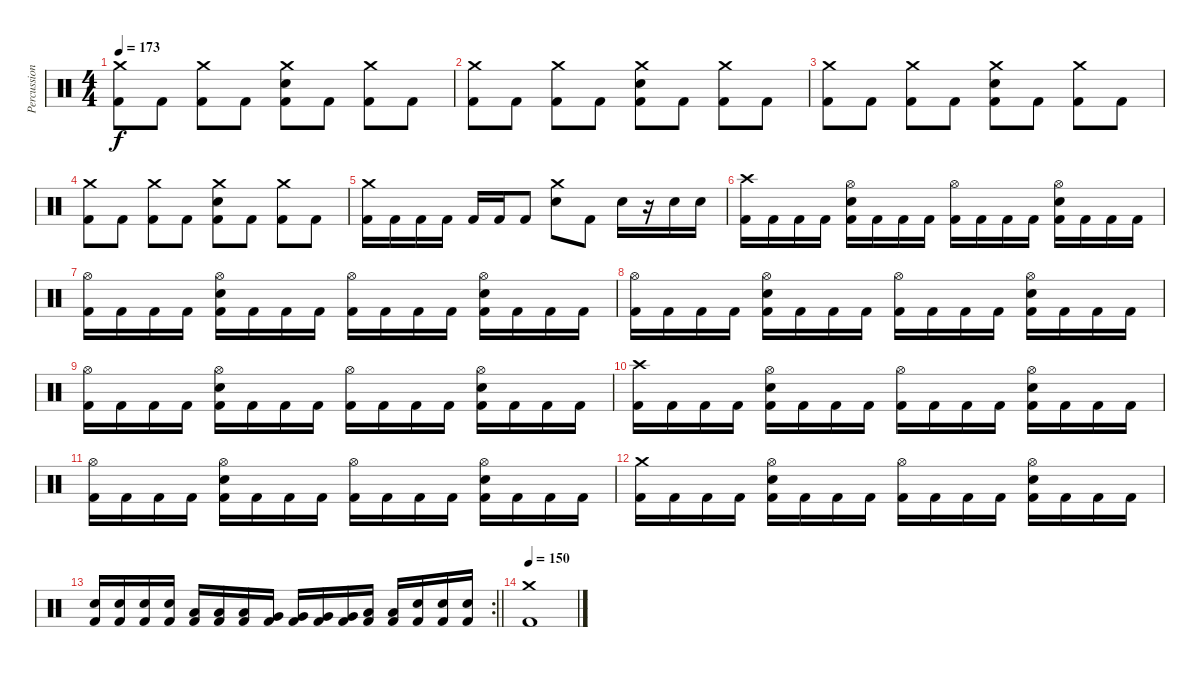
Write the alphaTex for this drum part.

\track ("Percussion" "Percussion") {instrument percussion}
\staff {score}
\articulation defaults
\ts (4 4)
\tempo 173
\clef neutral
\ks c
("Crash medium (hit)" "Kick (hit) 2").8{dy f} "Kick (hit) 2".8 ("Crash medium (hit)" "Kick (hit) 2").8 "Kick (hit) 2".8 ("Crash medium (hit)" "Electric Snare (hit)" "Kick (hit) 2").8 "Kick (hit) 2".8 ("Crash medium (hit)" "Kick (hit) 2").8 "Kick (hit) 2".8 |
("Crash medium (hit)" "Kick (hit) 2").8 "Kick (hit) 2".8 ("Crash medium (hit)" "Kick (hit) 2").8 "Kick (hit) 2".8 ("Crash medium (hit)" "Electric Snare (hit)" "Kick (hit) 2").8 "Kick (hit) 2".8 ("Crash medium (hit)" "Kick (hit) 2").8 "Kick (hit) 2".8 |
("Crash medium (hit)" "Kick (hit) 2").8 "Kick (hit) 2".8 ("Crash medium (hit)" "Kick (hit) 2").8 "Kick (hit) 2".8 ("Crash medium (hit)" "Electric Snare (hit)" "Kick (hit) 2").8 "Kick (hit) 2".8 ("Crash medium (hit)" "Kick (hit) 2").8 "Kick (hit) 2".8 |
("Crash medium (hit)" "Kick (hit) 2").8 "Kick (hit) 2".8 ("Crash medium (hit)" "Kick (hit) 2").8 "Kick (hit) 2".8 ("Crash medium (hit)" "Electric Snare (hit)" "Kick (hit) 2").8 "Kick (hit) 2".8 ("Crash medium (hit)" "Kick (hit) 2").8 "Kick (hit) 2".8 |
("Crash medium (hit)" "Kick (hit) 2").16 "Kick (hit) 2".16 "Kick (hit) 2".16 "Kick (hit) 2".16 "Kick (hit) 2".16 "Kick (hit) 2".16 "Kick (hit) 2".8 ("Crash medium (hit)" "Electric Snare (hit)").8 "Kick (hit) 2".8 "Electric Snare (hit)".16 r.16 "Electric Snare (hit)".16 "Electric Snare (hit)".16 |
("Crash high (hit)" "Kick (hit) 2").16 "Kick (hit) 2".16 "Kick (hit) 2".16 "Kick (hit) 2".16 ("Hi-Hat (open)" "Electric Snare (hit)" "Kick (hit) 2").16 "Kick (hit) 2".16 "Kick (hit) 2".16 "Kick (hit) 2".16 ("Hi-Hat (open)" "Kick (hit) 2").16 "Kick (hit) 2".16 "Kick (hit) 2".16 "Kick (hit) 2".16 ("Hi-Hat (open)" "Electric Snare (hit)" "Kick (hit) 2").16 "Kick (hit) 2".16 "Kick (hit) 2".16 "Kick (hit) 2".16 |
("Hi-Hat (open)" "Kick (hit) 2").16 "Kick (hit) 2".16 "Kick (hit) 2".16 "Kick (hit) 2".16 ("Hi-Hat (open)" "Electric Snare (hit)" "Kick (hit) 2").16 "Kick (hit) 2".16 "Kick (hit) 2".16 "Kick (hit) 2".16 ("Hi-Hat (open)" "Kick (hit) 2").16 "Kick (hit) 2".16 "Kick (hit) 2".16 "Kick (hit) 2".16 ("Hi-Hat (open)" "Electric Snare (hit)" "Kick (hit) 2").16 "Kick (hit) 2".16 "Kick (hit) 2".16 "Kick (hit) 2".16 |
("Hi-Hat (open)" "Kick (hit) 2").16 "Kick (hit) 2".16 "Kick (hit) 2".16 "Kick (hit) 2".16 ("Hi-Hat (open)" "Electric Snare (hit)" "Kick (hit) 2").16 "Kick (hit) 2".16 "Kick (hit) 2".16 "Kick (hit) 2".16 ("Hi-Hat (open)" "Kick (hit) 2").16 "Kick (hit) 2".16 "Kick (hit) 2".16 "Kick (hit) 2".16 ("Hi-Hat (open)" "Electric Snare (hit)" "Kick (hit) 2").16 "Kick (hit) 2".16 "Kick (hit) 2".16 "Kick (hit) 2".16 |
("Hi-Hat (open)" "Kick (hit) 2").16 "Kick (hit) 2".16 "Kick (hit) 2".16 "Kick (hit) 2".16 ("Hi-Hat (open)" "Electric Snare (hit)" "Kick (hit) 2").16 "Kick (hit) 2".16 "Kick (hit) 2".16 "Kick (hit) 2".16 ("Hi-Hat (open)" "Kick (hit) 2").16 "Kick (hit) 2".16 "Kick (hit) 2".16 "Kick (hit) 2".16 ("Hi-Hat (open)" "Electric Snare (hit)" "Kick (hit) 2").16 "Kick (hit) 2".16 "Kick (hit) 2".16 "Kick (hit) 2".16 |
("Crash high (hit)" "Kick (hit) 2").16 "Kick (hit) 2".16 "Kick (hit) 2".16 "Kick (hit) 2".16 ("Hi-Hat (open)" "Electric Snare (hit)" "Kick (hit) 2").16 "Kick (hit) 2".16 "Kick (hit) 2".16 "Kick (hit) 2".16 ("Hi-Hat (open)" "Kick (hit) 2").16 "Kick (hit) 2".16 "Kick (hit) 2".16 "Kick (hit) 2".16 ("Hi-Hat (open)" "Electric Snare (hit)" "Kick (hit) 2").16 "Kick (hit) 2".16 "Kick (hit) 2".16 "Kick (hit) 2".16 |
("Hi-Hat (open)" "Kick (hit) 2").16 "Kick (hit) 2".16 "Kick (hit) 2".16 "Kick (hit) 2".16 ("Hi-Hat (open)" "Electric Snare (hit)" "Kick (hit) 2").16 "Kick (hit) 2".16 "Kick (hit) 2".16 "Kick (hit) 2".16 ("Hi-Hat (open)" "Kick (hit) 2").16 "Kick (hit) 2".16 "Kick (hit) 2".16 "Kick (hit) 2".16 ("Hi-Hat (open)" "Electric Snare (hit)" "Kick (hit) 2").16 "Kick (hit) 2".16 "Kick (hit) 2".16 "Kick (hit) 2".16 |
("Crash medium (hit)" "Kick (hit) 2").16 "Kick (hit) 2".16 "Kick (hit) 2".16 "Kick (hit) 2".16 ("Hi-Hat (open)" "Electric Snare (hit)" "Kick (hit) 2").16 "Kick (hit) 2".16 "Kick (hit) 2".16 "Kick (hit) 2".16 ("Hi-Hat (open)" "Kick (hit) 2").16 "Kick (hit) 2".16 "Kick (hit) 2".16 "Kick (hit) 2".16 ("Hi-Hat (open)" "Electric Snare (hit)" "Kick (hit) 2").16 "Kick (hit) 2".16 "Kick (hit) 2".16 "Kick (hit) 2".16 |
\rc 2
\barLineRight lightlight
("Electric Snare (hit)" "Kick (hit) 2").16 ("Electric Snare (hit)" "Kick (hit) 2").16 ("Electric Snare (hit)" "Kick (hit) 2").16 ("Electric Snare (hit)" "Kick (hit) 2").16 ("Low Tom (hit)" "Kick (hit) 2").16 ("Low Tom (hit)" "Kick (hit) 2").16 ("Low Tom (hit)" "Kick (hit) 2").16 ("Very Low Tom (hit)" "Kick (hit) 2").16 ("Very Low Tom (hit)" "Kick (hit) 2").16 ("Very Low Tom (hit)" "Kick (hit) 2").16 ("Very Low Tom (hit)" "Kick (hit) 2").16 ("Low Floor Tom (hit)" "Kick (hit) 2").16 ("Low Floor Tom (hit)" "Kick (hit) 2").16 ("Electric Snare (hit)" "Kick (hit) 2").16 ("Electric Snare (hit)" "Kick (hit) 2").16 ("Electric Snare (hit)" "Kick (hit) 2").16 |
\tempo 150
("Crash medium (hit)" "Kick (hit) 2").1
